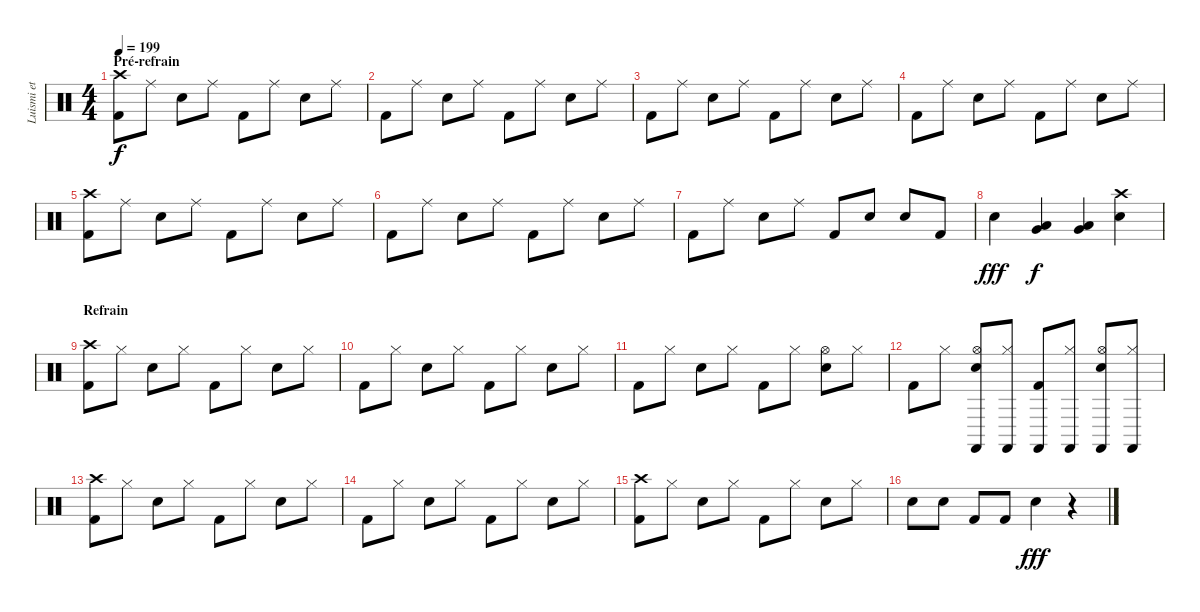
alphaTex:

\track ("Luismi et ses castagnettes" "Luismi et ") {instrument percussion}
\staff {score}
\articulation defaults
\ts (4 4)
\section ("" "Pré-refrain")
\tempo 199
\clef neutral
\ks c
("Crash high (hit)" "Kick (hit) 2").8{dy f} "Ride (middle)".8 "Snare (hit) 2".8 "Ride (middle)".8 "Kick (hit) 2".8 "Ride (middle)".8 "Snare (hit) 2".8 "Ride (middle)".8 |
"Kick (hit) 2".8 "Ride (middle)".8 "Snare (hit) 2".8 "Ride (middle)".8 "Kick (hit) 2".8 "Ride (middle)".8 "Snare (hit) 2".8 "Ride (middle)".8 |
"Kick (hit) 2".8 "Ride (middle)".8 "Snare (hit) 2".8 "Ride (middle)".8 "Kick (hit) 2".8 "Ride (middle)".8 "Snare (hit) 2".8 "Ride (middle)".8 |
"Kick (hit) 2".8 "Ride (middle)".8 "Snare (hit) 2".8 "Ride (middle)".8 "Kick (hit) 2".8 "Ride (middle)".8 "Snare (hit) 2".8 "Ride (middle)".8 |
("Crash high (hit)" "Kick (hit) 2").8 "Ride (middle)".8 "Snare (hit) 2".8 "Ride (middle)".8 "Kick (hit) 2".8 "Ride (middle)".8 "Snare (hit) 2".8 "Ride (middle)".8 |
"Kick (hit) 2".8 "Ride (middle)".8 "Snare (hit) 2".8 "Ride (middle)".8 "Kick (hit) 2".8 "Ride (middle)".8 "Snare (hit) 2".8 "Ride (middle)".8 |
"Kick (hit) 2".8 "Ride (middle)".8 "Snare (hit) 2".8 "Ride (middle)".8 "Kick (hit) 2".8 "Snare (hit) 2".8 "Snare (hit) 2".8 "Kick (hit) 2".8 |
"Snare (hit) 2".4{dy fff} ("Low Tom (hit)" "Very Low Tom (hit)").4{dy f} ("Low Tom (hit)" "Very Low Tom (hit)").4 ("Crash high (hit)" "Snare (hit) 2").4 |
\section ("" "Refrain")
("Crash high (hit)" "Kick (hit) 2").8 "Hi-Hat (closed)".8 "Snare (hit) 2".8 "Hi-Hat (closed)".8 "Kick (hit) 2".8 "Hi-Hat (closed)".8 "Snare (hit) 2".8 "Hi-Hat (closed)".8 |
"Kick (hit) 2".8 "Hi-Hat (closed)".8 "Snare (hit) 2".8 "Hi-Hat (closed)".8 "Kick (hit) 2".8 "Hi-Hat (closed)".8 "Snare (hit) 2".8 "Hi-Hat (closed)".8 |
"Kick (hit) 2".8 "Hi-Hat (closed)".8 "Snare (hit) 2".8 "Hi-Hat (closed)".8 "Kick (hit) 2".8 "Hi-Hat (closed)".8 ("Hi-Hat (open)" "Snare (hit) 2").8 "Hi-Hat (closed)".8 |
"Kick (hit) 2".8 "Hi-Hat (closed)".8 ("Hi-Hat (open)" "Castanets (hit)" "Snare (hit) 2").8 ("Hi-Hat (closed)" "Castanets (hit)").8 ("Castanets (hit)" "Kick (hit) 2").8 ("Hi-Hat (closed)" "Castanets (hit)").8 ("Hi-Hat (open)" "Castanets (hit)" "Snare (hit) 2").8 ("Hi-Hat (closed)" "Castanets (hit)").8 |
("Crash high (hit)" "Kick (hit) 2").8 "Hi-Hat (closed)".8 "Snare (hit) 2".8 "Hi-Hat (closed)".8 "Kick (hit) 2".8 "Hi-Hat (closed)".8 "Snare (hit) 2".8 "Hi-Hat (closed)".8 |
"Kick (hit) 2".8 "Hi-Hat (closed)".8 "Snare (hit) 2".8 "Hi-Hat (closed)".8 "Kick (hit) 2".8 "Hi-Hat (closed)".8 "Snare (hit) 2".8 "Hi-Hat (closed)".8 |
("Crash high (hit)" "Kick (hit) 2").8 "Hi-Hat (closed)".8 "Snare (hit) 2".8 "Hi-Hat (closed)".8 "Kick (hit) 2".8 "Hi-Hat (closed)".8 "Snare (hit) 2".8 "Hi-Hat (closed)".8 |
"Snare (hit) 2".8 "Snare (hit) 2".8 "Kick (hit) 2".8 "Kick (hit) 2".8 "Snare (hit) 2".4{dy fff} r.4
